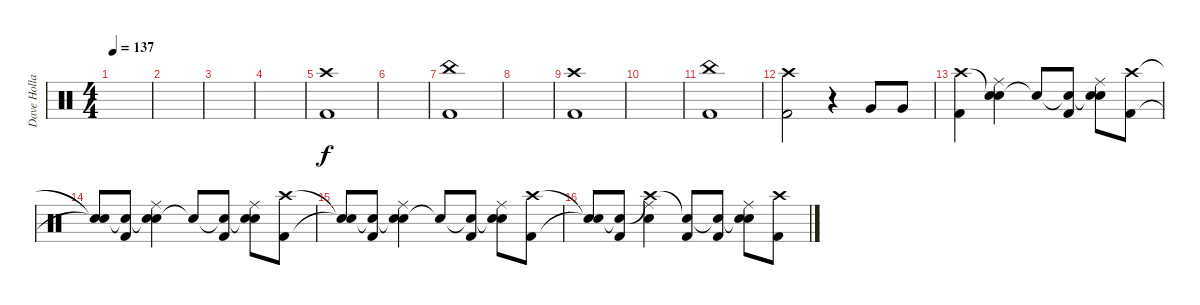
\track ("Dave Holland" "Dave Holla") {instrument percussion}
\staff {score}
\articulation defaults
\ts (4 4)
\tempo 137
\clef neutral
\ks c
|
|
|
|
("Crash high (hit)" "Kick (hit) 2").1 |
|
("China (hit)" "Kick (hit) 2").1 |
|
("Crash high (hit)" "Kick (hit) 2").1 |
|
("China (hit)" "Kick (hit) 2").1 |
("Crash high (hit)" "Kick (hit) 2").2 r.4 "Very Low Tom (hit)".8 "Very Low Tom (hit)".8 |
("Crash high (hit)" "Kick (hit) 2").4 ("Snare (hit)"{t} "Ride (middle)" "Snare (hit) 2").4 "Snare (hit)"{t}.8 ("Snare (hit)"{t} "Kick (hit) 2").8 ("Snare (hit)"{t} "Ride (middle)" "Snare (hit) 2").8 ("Crash high (hit)" "Kick (hit) 2").8 |
("Snare (hit)"{t} "Snare (hit)"{t}).8 ("Snare (hit)"{t} "Kick (hit) 2").8 ("Snare (hit)"{t} "Ride (middle)" "Snare (hit) 2").4 "Snare (hit)"{t}.8 ("Snare (hit)"{t} "Kick (hit) 2").8 ("Snare (hit)"{t} "Ride (middle)" "Snare (hit) 2").8 ("Crash high (hit)" "Kick (hit) 2").8 |
("Snare (hit)"{t} "Snare (hit)"{t}).8 ("Snare (hit)"{t} "Kick (hit) 2").8 ("Snare (hit)"{t} "Ride (middle)" "Snare (hit) 2").4 "Snare (hit)"{t}.8 ("Snare (hit)"{t} "Kick (hit) 2").8 ("Snare (hit)"{t} "Ride (middle)" "Snare (hit) 2").8 ("Crash high (hit)" "Kick (hit) 2").8 |
("Snare (hit)"{t} "Snare (hit)"{t}).8 ("Snare (hit)"{t} "Kick (hit) 2").8 ("Crash high (hit)"{t} "Ride (middle)" "Snare (hit) 2").4 ("Snare (hit)"{t} "Kick (hit) 2").8 ("Snare (hit)"{t} "Kick (hit) 2").8 ("Snare (hit)"{t} "Ride (middle)" "Snare (hit) 2").8 ("Crash high (hit)" "Kick (hit) 2").8
